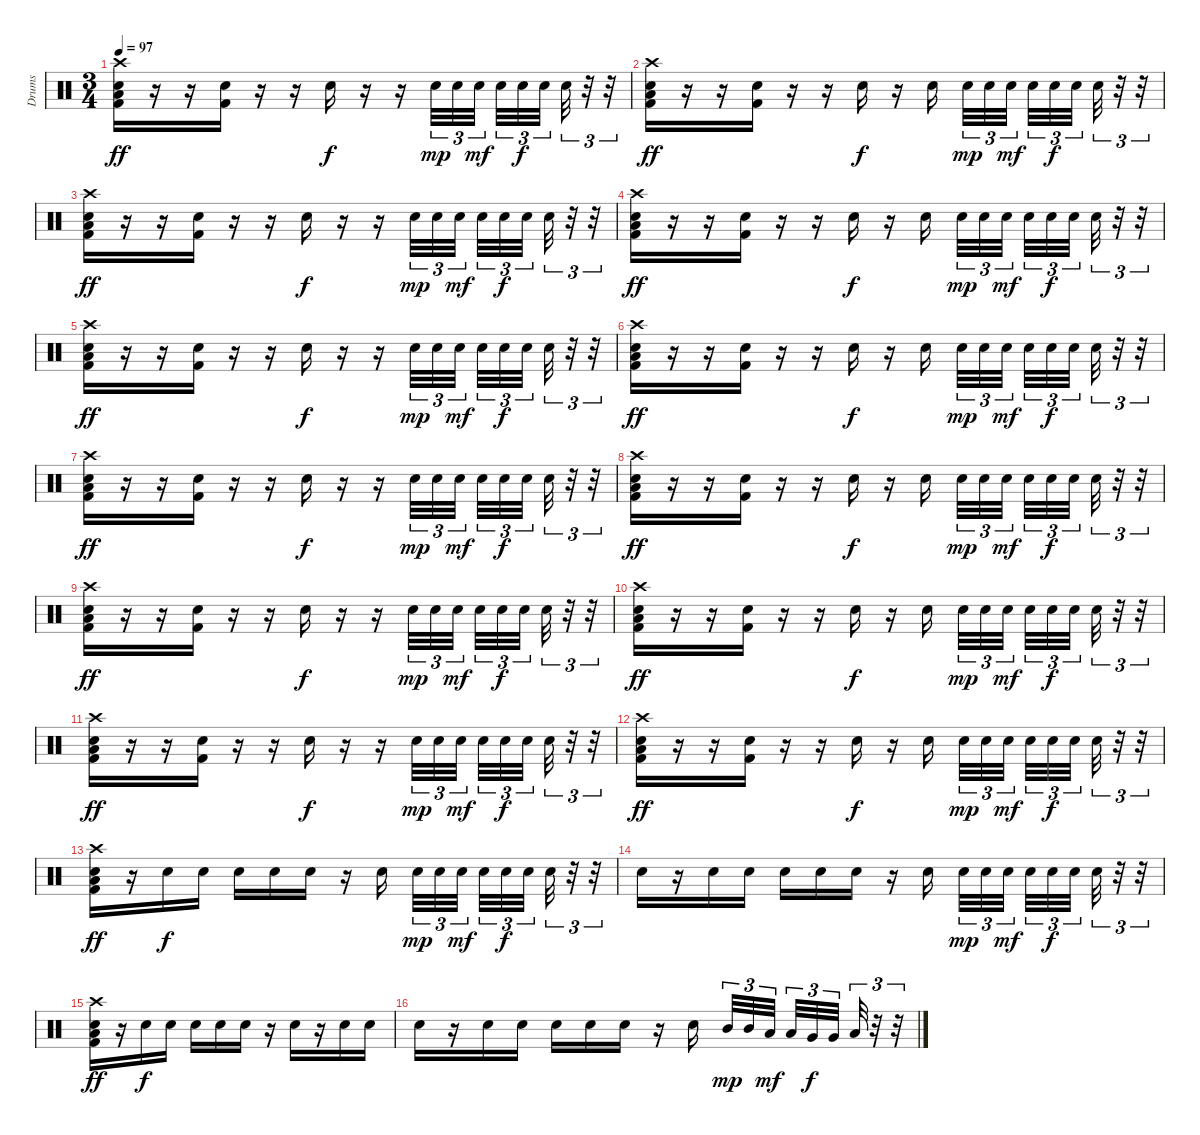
\track ("Drums" "Drums") {instrument percussion}
\staff {score}
\articulation defaults
\ts (3 4)
\tempo 97
\clef neutral
\ks c
("Crash high (hit)" "Low Floor Tom (hit)" "Electric Snare (hit)" "Kick (hit) 2").16{dy ff} r.16 r.16 ("Electric Snare (hit)" "Kick (hit) 2").16 r.16 r.16 "Electric Snare (hit)".16{dy f} r.16 r.16 "Electric Snare (hit)".32{tu (3 2) dy mp} "Electric Snare (hit)".32{tu (3 2)} "Electric Snare (hit)".32{tu (3 2) dy mf} "Electric Snare (hit)".32{tu (3 2)} "Electric Snare (hit)".32{tu (3 2) dy f} "Electric Snare (hit)".32{tu (3 2)} "Electric Snare (hit)".32{tu (3 2)} r.32{tu (3 2)} r.32{tu (3 2)} |
("Crash high (hit)" "Low Floor Tom (hit)" "Electric Snare (hit)" "Kick (hit) 2").16{dy ff} r.16 r.16 ("Electric Snare (hit)" "Kick (hit) 2").16 r.16 r.16 "Electric Snare (hit)".16{dy f} r.16 "Electric Snare (hit)".16 "Electric Snare (hit)".32{tu (3 2) dy mp} "Electric Snare (hit)".32{tu (3 2)} "Electric Snare (hit)".32{tu (3 2) dy mf} "Electric Snare (hit)".32{tu (3 2)} "Electric Snare (hit)".32{tu (3 2) dy f} "Electric Snare (hit)".32{tu (3 2)} "Electric Snare (hit)".32{tu (3 2)} r.32{tu (3 2)} r.32{tu (3 2)} |
("Crash high (hit)" "Low Floor Tom (hit)" "Electric Snare (hit)" "Kick (hit) 2").16{dy ff} r.16 r.16 ("Electric Snare (hit)" "Kick (hit) 2").16 r.16 r.16 "Electric Snare (hit)".16{dy f} r.16 r.16 "Electric Snare (hit)".32{tu (3 2) dy mp} "Electric Snare (hit)".32{tu (3 2)} "Electric Snare (hit)".32{tu (3 2) dy mf} "Electric Snare (hit)".32{tu (3 2)} "Electric Snare (hit)".32{tu (3 2) dy f} "Electric Snare (hit)".32{tu (3 2)} "Electric Snare (hit)".32{tu (3 2)} r.32{tu (3 2)} r.32{tu (3 2)} |
("Crash high (hit)" "Low Floor Tom (hit)" "Electric Snare (hit)" "Kick (hit) 2").16{dy ff} r.16 r.16 ("Electric Snare (hit)" "Kick (hit) 2").16 r.16 r.16 "Electric Snare (hit)".16{dy f} r.16 "Electric Snare (hit)".16 "Electric Snare (hit)".32{tu (3 2) dy mp} "Electric Snare (hit)".32{tu (3 2)} "Electric Snare (hit)".32{tu (3 2) dy mf} "Electric Snare (hit)".32{tu (3 2)} "Electric Snare (hit)".32{tu (3 2) dy f} "Electric Snare (hit)".32{tu (3 2)} "Electric Snare (hit)".32{tu (3 2)} r.32{tu (3 2)} r.32{tu (3 2)} |
("Crash high (hit)" "Low Floor Tom (hit)" "Electric Snare (hit)" "Kick (hit) 2").16{dy ff} r.16 r.16 ("Electric Snare (hit)" "Kick (hit) 2").16 r.16 r.16 "Electric Snare (hit)".16{dy f} r.16 r.16 "Electric Snare (hit)".32{tu (3 2) dy mp} "Electric Snare (hit)".32{tu (3 2)} "Electric Snare (hit)".32{tu (3 2) dy mf} "Electric Snare (hit)".32{tu (3 2)} "Electric Snare (hit)".32{tu (3 2) dy f} "Electric Snare (hit)".32{tu (3 2)} "Electric Snare (hit)".32{tu (3 2)} r.32{tu (3 2)} r.32{tu (3 2)} |
("Crash high (hit)" "Low Floor Tom (hit)" "Electric Snare (hit)" "Kick (hit) 2").16{dy ff} r.16 r.16 ("Electric Snare (hit)" "Kick (hit) 2").16 r.16 r.16 "Electric Snare (hit)".16{dy f} r.16 "Electric Snare (hit)".16 "Electric Snare (hit)".32{tu (3 2) dy mp} "Electric Snare (hit)".32{tu (3 2)} "Electric Snare (hit)".32{tu (3 2) dy mf} "Electric Snare (hit)".32{tu (3 2)} "Electric Snare (hit)".32{tu (3 2) dy f} "Electric Snare (hit)".32{tu (3 2)} "Electric Snare (hit)".32{tu (3 2)} r.32{tu (3 2)} r.32{tu (3 2)} |
("Crash high (hit)" "Low Floor Tom (hit)" "Electric Snare (hit)" "Kick (hit) 2").16{dy ff} r.16 r.16 ("Electric Snare (hit)" "Kick (hit) 2").16 r.16 r.16 "Electric Snare (hit)".16{dy f} r.16 r.16 "Electric Snare (hit)".32{tu (3 2) dy mp} "Electric Snare (hit)".32{tu (3 2)} "Electric Snare (hit)".32{tu (3 2) dy mf} "Electric Snare (hit)".32{tu (3 2)} "Electric Snare (hit)".32{tu (3 2) dy f} "Electric Snare (hit)".32{tu (3 2)} "Electric Snare (hit)".32{tu (3 2)} r.32{tu (3 2)} r.32{tu (3 2)} |
("Crash high (hit)" "Low Floor Tom (hit)" "Electric Snare (hit)" "Kick (hit) 2").16{dy ff} r.16 r.16 ("Electric Snare (hit)" "Kick (hit) 2").16 r.16 r.16 "Electric Snare (hit)".16{dy f} r.16 "Electric Snare (hit)".16 "Electric Snare (hit)".32{tu (3 2) dy mp} "Electric Snare (hit)".32{tu (3 2)} "Electric Snare (hit)".32{tu (3 2) dy mf} "Electric Snare (hit)".32{tu (3 2)} "Electric Snare (hit)".32{tu (3 2) dy f} "Electric Snare (hit)".32{tu (3 2)} "Electric Snare (hit)".32{tu (3 2)} r.32{tu (3 2)} r.32{tu (3 2)} |
("Crash high (hit)" "Low Floor Tom (hit)" "Electric Snare (hit)" "Kick (hit) 2").16{dy ff} r.16 r.16 ("Electric Snare (hit)" "Kick (hit) 2").16 r.16 r.16 "Electric Snare (hit)".16{dy f} r.16 r.16 "Electric Snare (hit)".32{tu (3 2) dy mp} "Electric Snare (hit)".32{tu (3 2)} "Electric Snare (hit)".32{tu (3 2) dy mf} "Electric Snare (hit)".32{tu (3 2)} "Electric Snare (hit)".32{tu (3 2) dy f} "Electric Snare (hit)".32{tu (3 2)} "Electric Snare (hit)".32{tu (3 2)} r.32{tu (3 2)} r.32{tu (3 2)} |
("Crash high (hit)" "Low Floor Tom (hit)" "Electric Snare (hit)" "Kick (hit) 2").16{dy ff} r.16 r.16 ("Electric Snare (hit)" "Kick (hit) 2").16 r.16 r.16 "Electric Snare (hit)".16{dy f} r.16 "Electric Snare (hit)".16 "Electric Snare (hit)".32{tu (3 2) dy mp} "Electric Snare (hit)".32{tu (3 2)} "Electric Snare (hit)".32{tu (3 2) dy mf} "Electric Snare (hit)".32{tu (3 2)} "Electric Snare (hit)".32{tu (3 2) dy f} "Electric Snare (hit)".32{tu (3 2)} "Electric Snare (hit)".32{tu (3 2)} r.32{tu (3 2)} r.32{tu (3 2)} |
("Crash high (hit)" "Low Floor Tom (hit)" "Electric Snare (hit)" "Kick (hit) 2").16{dy ff} r.16 r.16 ("Electric Snare (hit)" "Kick (hit) 2").16 r.16 r.16 "Electric Snare (hit)".16{dy f} r.16 r.16 "Electric Snare (hit)".32{tu (3 2) dy mp} "Electric Snare (hit)".32{tu (3 2)} "Electric Snare (hit)".32{tu (3 2) dy mf} "Electric Snare (hit)".32{tu (3 2)} "Electric Snare (hit)".32{tu (3 2) dy f} "Electric Snare (hit)".32{tu (3 2)} "Electric Snare (hit)".32{tu (3 2)} r.32{tu (3 2)} r.32{tu (3 2)} |
("Crash high (hit)" "Low Floor Tom (hit)" "Electric Snare (hit)" "Kick (hit) 2").16{dy ff} r.16 r.16 ("Electric Snare (hit)" "Kick (hit) 2").16 r.16 r.16 "Electric Snare (hit)".16{dy f} r.16 "Electric Snare (hit)".16 "Electric Snare (hit)".32{tu (3 2) dy mp} "Electric Snare (hit)".32{tu (3 2)} "Electric Snare (hit)".32{tu (3 2) dy mf} "Electric Snare (hit)".32{tu (3 2)} "Electric Snare (hit)".32{tu (3 2) dy f} "Electric Snare (hit)".32{tu (3 2)} "Electric Snare (hit)".32{tu (3 2)} r.32{tu (3 2)} r.32{tu (3 2)} |
("Crash high (hit)" "Low Floor Tom (hit)" "Electric Snare (hit)" "Kick (hit) 2").16{dy ff} r.16 "Electric Snare (hit)".16{dy f} "Electric Snare (hit)".16 "Electric Snare (hit)".16 "Electric Snare (hit)".16 "Electric Snare (hit)".16 r.16 "Electric Snare (hit)".16 "Electric Snare (hit)".32{tu (3 2) dy mp} "Electric Snare (hit)".32{tu (3 2)} "Electric Snare (hit)".32{tu (3 2) dy mf} "Electric Snare (hit)".32{tu (3 2)} "Electric Snare (hit)".32{tu (3 2) dy f} "Electric Snare (hit)".32{tu (3 2)} "Electric Snare (hit)".32{tu (3 2)} r.32{tu (3 2)} r.32{tu (3 2)} |
"Electric Snare (hit)".16 r.16 "Electric Snare (hit)".16 "Electric Snare (hit)".16 "Electric Snare (hit)".16 "Electric Snare (hit)".16 "Electric Snare (hit)".16 r.16 "Electric Snare (hit)".16 "Electric Snare (hit)".32{tu (3 2) dy mp} "Electric Snare (hit)".32{tu (3 2)} "Electric Snare (hit)".32{tu (3 2) dy mf} "Electric Snare (hit)".32{tu (3 2)} "Electric Snare (hit)".32{tu (3 2) dy f} "Electric Snare (hit)".32{tu (3 2)} "Electric Snare (hit)".32{tu (3 2)} r.32{tu (3 2)} r.32{tu (3 2)} |
("Crash high (hit)" "Low Floor Tom (hit)" "Electric Snare (hit)" "Kick (hit) 2").16{dy ff} r.16 "Electric Snare (hit)".16{dy f} "Electric Snare (hit)".16 "Electric Snare (hit)".16 "Electric Snare (hit)".16 "Electric Snare (hit)".16 r.16 "Electric Snare (hit)".16 r.16 "Electric Snare (hit)".16 "Electric Snare (hit)".16 |
"Electric Snare (hit)".16 r.16 "Electric Snare (hit)".16 "Electric Snare (hit)".16 "Electric Snare (hit)".16 "Electric Snare (hit)".16 "Electric Snare (hit)".16 r.16 "Electric Snare (hit)".16 "Mid Tom (hit)".32{tu (3 2) dy mp} "Mid Tom (hit)".32{tu (3 2)} "Low Tom (hit)".32{tu (3 2) dy mf} "Low Tom (hit)".32{tu (3 2)} "Very Low Tom (hit)".32{tu (3 2) dy f} "Very Low Tom (hit)".32{tu (3 2)} "Low Floor Tom (hit)".32{tu (3 2)} r.32{tu (3 2)} r.32{tu (3 2)}
